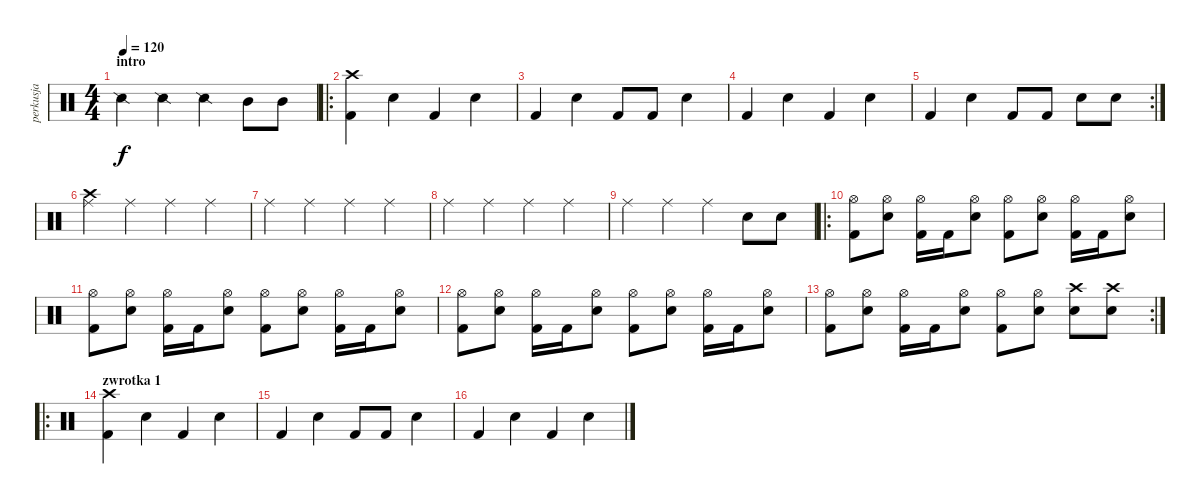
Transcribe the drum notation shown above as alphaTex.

\track ("perkusja" "perkusja") {instrument percussion}
\staff {score}
\articulation defaults
\ts (4 4)
\section ("" "intro")
\tempo 120
\clef neutral
\ks c "Snare (side stick) 2".4{dy f} "Snare (side stick) 2".4 "Snare (side stick) 2".4 "Mid Tom (hit)".8 "Mid Tom (hit)".8
|
\ro
("Crash high (hit)" "Kick (hit) 2").4 "Electric Snare (hit)".4 "Kick (hit) 2".4 "Electric Snare (hit)".4 |
"Kick (hit) 2".4 "Electric Snare (hit)".4 "Kick (hit) 2".8 "Kick (hit) 2".8 "Electric Snare (hit)".4 |
"Kick (hit) 2".4 "Electric Snare (hit)".4 "Kick (hit) 2".4 "Electric Snare (hit)".4 |
\rc 2 "Kick (hit) 2".4 "Electric Snare (hit)".4 "Kick (hit) 2".8 "Kick (hit) 2".8 "Electric Snare (hit)".8 "Electric Snare (hit)".8
|
("Ride (middle)" "Crash high (hit)").4 "Ride (middle)".4 "Ride (middle)".4 "Ride (middle)".4 |
"Ride (middle)".4 "Ride (middle)".4 "Ride (middle)".4 "Ride (middle)".4 |
"Ride (middle)".4 "Ride (middle)".4 "Ride (middle)".4 "Ride (middle)".4 |
"Ride (middle)".4 "Ride (middle)".4 "Ride (middle)".4 "Electric Snare (hit)".8 "Electric Snare (hit)".8 |
\ro
("Hi-Hat (open)" "Kick (hit) 2").8 ("Hi-Hat (open)" "Electric Snare (hit)").8 ("Hi-Hat (open)" "Kick (hit) 2").16 "Kick (hit) 2".16 ("Hi-Hat (open)" "Electric Snare (hit)").8 ("Hi-Hat (open)" "Kick (hit) 2").8 ("Hi-Hat (open)" "Electric Snare (hit)").8 ("Hi-Hat (open)" "Kick (hit) 2").16 "Kick (hit) 2".16 ("Hi-Hat (open)" "Electric Snare (hit)").8 |
("Hi-Hat (open)" "Kick (hit) 2").8 ("Hi-Hat (open)" "Electric Snare (hit)").8 ("Hi-Hat (open)" "Kick (hit) 2").16 "Kick (hit) 2".16 ("Hi-Hat (open)" "Electric Snare (hit)").8 ("Hi-Hat (open)" "Kick (hit) 2").8 ("Hi-Hat (open)" "Electric Snare (hit)").8 ("Hi-Hat (open)" "Kick (hit) 2").16 "Kick (hit) 2".16 ("Hi-Hat (open)" "Electric Snare (hit)").8 |
("Hi-Hat (open)" "Kick (hit) 2").8 ("Hi-Hat (open)" "Electric Snare (hit)").8 ("Hi-Hat (open)" "Kick (hit) 2").16 "Kick (hit) 2".16 ("Hi-Hat (open)" "Electric Snare (hit)").8 ("Hi-Hat (open)" "Kick (hit) 2").8 ("Hi-Hat (open)" "Electric Snare (hit)").8 ("Hi-Hat (open)" "Kick (hit) 2").16 "Kick (hit) 2".16 ("Hi-Hat (open)" "Electric Snare (hit)").8 |
\rc 2
("Hi-Hat (open)" "Kick (hit) 2").8 ("Hi-Hat (open)" "Electric Snare (hit)").8 ("Hi-Hat (open)" "Kick (hit) 2").16 "Kick (hit) 2".16 ("Hi-Hat (open)" "Electric Snare (hit)").8 ("Hi-Hat (open)" "Kick (hit) 2").8 ("Hi-Hat (open)" "Electric Snare (hit)").8 ("Crash high (hit)" "Electric Snare (hit)").8 ("Crash high (hit)" "Electric Snare (hit)").8 |
\ro
\section ("" "zwrotka 1")
("Crash high (hit)" "Kick (hit) 2").4 "Electric Snare (hit)".4 "Kick (hit) 2".4 "Electric Snare (hit)".4 |
"Kick (hit) 2".4 "Electric Snare (hit)".4 "Kick (hit) 2".8 "Kick (hit) 2".8 "Electric Snare (hit)".4 |
"Kick (hit) 2".4 "Electric Snare (hit)".4 "Kick (hit) 2".4 "Electric Snare (hit)".4
